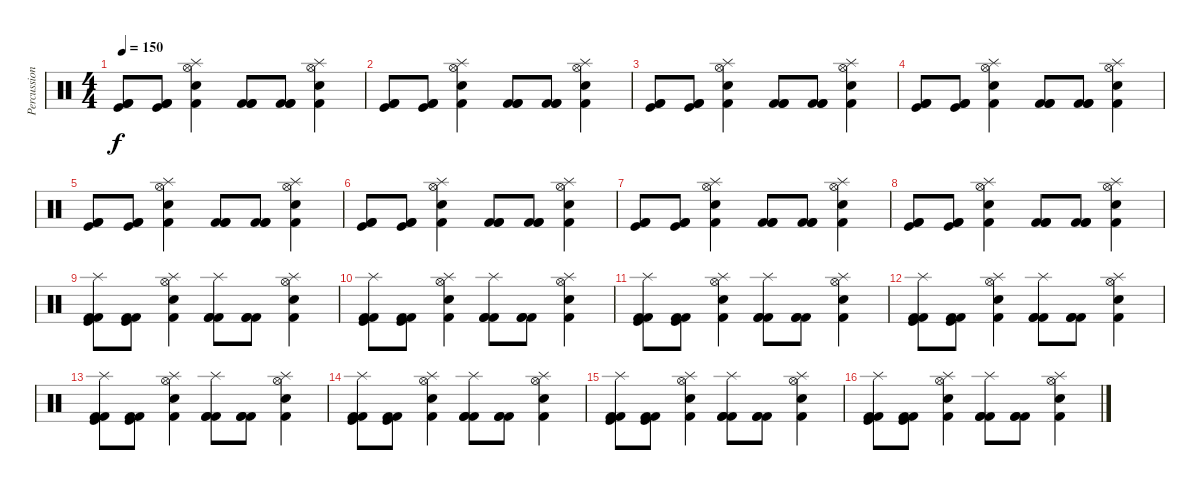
\track ("Percussion" "Percussion") {instrument percussion}
\staff {score}
\articulation defaults
\ts (4 4)
\tempo 150
\clef neutral
\ks c
("Kick (hit) 2" "Kick (hit)" "Kick (hit) 2").8{dy f} ("Kick (hit) 2" "Kick (hit)" "Kick (hit) 2").8 ("Hi-Hat (open)" "Snare (hit) 2" "Kick (hit) 2" "Splash (hit)").4 ("Kick (hit) 2" "Kick (hit) 2" "Kick (hit) 2").8 ("Kick (hit) 2" "Kick (hit) 2" "Kick (hit) 2").8 ("Hi-Hat (open)" "Snare (hit) 2" "Kick (hit) 2" "Splash (hit)").4 |
("Kick (hit) 2" "Kick (hit)" "Kick (hit) 2").8 ("Kick (hit) 2" "Kick (hit)" "Kick (hit) 2").8 ("Hi-Hat (open)" "Snare (hit) 2" "Kick (hit) 2" "Splash (hit)").4 ("Kick (hit) 2" "Kick (hit) 2" "Kick (hit) 2").8 ("Kick (hit) 2" "Kick (hit) 2" "Kick (hit) 2").8 ("Hi-Hat (open)" "Snare (hit) 2" "Kick (hit) 2" "Splash (hit)").4 |
("Kick (hit) 2" "Kick (hit)" "Kick (hit) 2").8 ("Kick (hit) 2" "Kick (hit)" "Kick (hit) 2").8 ("Hi-Hat (open)" "Snare (hit) 2" "Kick (hit) 2" "Splash (hit)").4 ("Kick (hit) 2" "Kick (hit) 2" "Kick (hit) 2").8 ("Kick (hit) 2" "Kick (hit) 2" "Kick (hit) 2").8 ("Hi-Hat (open)" "Snare (hit) 2" "Kick (hit) 2" "Splash (hit)").4 |
("Kick (hit) 2" "Kick (hit)" "Kick (hit) 2").8 ("Kick (hit) 2" "Kick (hit)" "Kick (hit) 2").8 ("Hi-Hat (open)" "Snare (hit) 2" "Kick (hit) 2" "Splash (hit)").4 ("Kick (hit) 2" "Kick (hit) 2" "Kick (hit) 2").8 ("Kick (hit) 2" "Kick (hit) 2" "Kick (hit) 2").8 ("Hi-Hat (open)" "Snare (hit) 2" "Kick (hit) 2" "Splash (hit)").4 |
("Kick (hit) 2" "Kick (hit)" "Kick (hit) 2").8 ("Kick (hit) 2" "Kick (hit)" "Kick (hit) 2").8 ("Hi-Hat (open)" "Snare (hit) 2" "Kick (hit) 2" "Splash (hit)").4 ("Kick (hit) 2" "Kick (hit) 2" "Kick (hit) 2").8 ("Kick (hit) 2" "Kick (hit) 2" "Kick (hit) 2").8 ("Hi-Hat (open)" "Snare (hit) 2" "Kick (hit) 2" "Splash (hit)").4 |
("Kick (hit) 2" "Kick (hit)" "Kick (hit) 2").8 ("Kick (hit) 2" "Kick (hit)" "Kick (hit) 2").8 ("Hi-Hat (open)" "Snare (hit) 2" "Kick (hit) 2" "Splash (hit)").4 ("Kick (hit) 2" "Kick (hit) 2" "Kick (hit) 2").8 ("Kick (hit) 2" "Kick (hit) 2" "Kick (hit) 2").8 ("Hi-Hat (open)" "Snare (hit) 2" "Kick (hit) 2" "Splash (hit)").4 |
("Kick (hit) 2" "Kick (hit)" "Kick (hit) 2").8 ("Kick (hit) 2" "Kick (hit)" "Kick (hit) 2").8 ("Hi-Hat (open)" "Snare (hit) 2" "Kick (hit) 2" "Splash (hit)").4 ("Kick (hit) 2" "Kick (hit) 2" "Kick (hit) 2").8 ("Kick (hit) 2" "Kick (hit) 2" "Kick (hit) 2").8 ("Hi-Hat (open)" "Snare (hit) 2" "Kick (hit) 2" "Splash (hit)").4 |
("Kick (hit) 2" "Kick (hit)" "Kick (hit) 2").8 ("Kick (hit) 2" "Kick (hit)" "Kick (hit) 2").8 ("Hi-Hat (open)" "Snare (hit) 2" "Kick (hit) 2" "Splash (hit)").4 ("Kick (hit) 2" "Kick (hit) 2" "Kick (hit) 2").8 ("Kick (hit) 2" "Kick (hit) 2" "Kick (hit) 2").8 ("Hi-Hat (open)" "Snare (hit) 2" "Kick (hit) 2" "Splash (hit)").4 |
("Kick (hit) 2" "Kick (hit)" "Kick (hit) 2" "Splash (hit)").8 ("Kick (hit) 2" "Kick (hit)" "Kick (hit) 2").8 ("Hi-Hat (open)" "Snare (hit) 2" "Kick (hit) 2" "Splash (hit)").4 ("Kick (hit) 2" "Kick (hit) 2" "Kick (hit) 2" "Splash (hit)").8 ("Kick (hit) 2" "Kick (hit) 2" "Kick (hit) 2").8 ("Hi-Hat (open)" "Snare (hit) 2" "Kick (hit) 2" "Splash (hit)").4 |
("Kick (hit) 2" "Kick (hit)" "Kick (hit) 2" "Splash (hit)").8 ("Kick (hit) 2" "Kick (hit)" "Kick (hit) 2").8 ("Hi-Hat (open)" "Snare (hit) 2" "Kick (hit) 2" "Splash (hit)").4 ("Kick (hit) 2" "Kick (hit) 2" "Kick (hit) 2" "Splash (hit)").8 ("Kick (hit) 2" "Kick (hit) 2" "Kick (hit) 2").8 ("Hi-Hat (open)" "Snare (hit) 2" "Kick (hit) 2" "Splash (hit)").4 |
("Kick (hit) 2" "Kick (hit)" "Kick (hit) 2" "Splash (hit)").8 ("Kick (hit) 2" "Kick (hit)" "Kick (hit) 2").8 ("Hi-Hat (open)" "Snare (hit) 2" "Kick (hit) 2" "Splash (hit)").4 ("Kick (hit) 2" "Kick (hit) 2" "Kick (hit) 2" "Splash (hit)").8 ("Kick (hit) 2" "Kick (hit) 2" "Kick (hit) 2").8 ("Hi-Hat (open)" "Snare (hit) 2" "Kick (hit) 2" "Splash (hit)").4 |
("Kick (hit) 2" "Kick (hit)" "Kick (hit) 2" "Splash (hit)").8 ("Kick (hit) 2" "Kick (hit)" "Kick (hit) 2").8 ("Hi-Hat (open)" "Snare (hit) 2" "Kick (hit) 2" "Splash (hit)").4 ("Kick (hit) 2" "Kick (hit) 2" "Kick (hit) 2" "Splash (hit)").8 ("Kick (hit) 2" "Kick (hit) 2" "Kick (hit) 2").8 ("Hi-Hat (open)" "Snare (hit) 2" "Kick (hit) 2" "Splash (hit)").4 |
("Kick (hit) 2" "Kick (hit)" "Kick (hit) 2" "Splash (hit)").8 ("Kick (hit) 2" "Kick (hit)" "Kick (hit) 2").8 ("Hi-Hat (open)" "Snare (hit) 2" "Kick (hit) 2" "Splash (hit)").4 ("Kick (hit) 2" "Kick (hit) 2" "Kick (hit) 2" "Splash (hit)").8 ("Kick (hit) 2" "Kick (hit) 2" "Kick (hit) 2").8 ("Hi-Hat (open)" "Snare (hit) 2" "Kick (hit) 2" "Splash (hit)").4 |
("Kick (hit) 2" "Kick (hit)" "Kick (hit) 2" "Splash (hit)").8 ("Kick (hit) 2" "Kick (hit)" "Kick (hit) 2").8 ("Hi-Hat (open)" "Snare (hit) 2" "Kick (hit) 2" "Splash (hit)").4 ("Kick (hit) 2" "Kick (hit) 2" "Kick (hit) 2" "Splash (hit)").8 ("Kick (hit) 2" "Kick (hit) 2" "Kick (hit) 2").8 ("Hi-Hat (open)" "Snare (hit) 2" "Kick (hit) 2" "Splash (hit)").4 |
("Kick (hit) 2" "Kick (hit)" "Kick (hit) 2" "Splash (hit)").8 ("Kick (hit) 2" "Kick (hit)" "Kick (hit) 2").8 ("Hi-Hat (open)" "Snare (hit) 2" "Kick (hit) 2" "Splash (hit)").4 ("Kick (hit) 2" "Kick (hit) 2" "Kick (hit) 2" "Splash (hit)").8 ("Kick (hit) 2" "Kick (hit) 2" "Kick (hit) 2").8 ("Hi-Hat (open)" "Snare (hit) 2" "Kick (hit) 2" "Splash (hit)").4 |
("Kick (hit) 2" "Kick (hit)" "Kick (hit) 2" "Splash (hit)").8 ("Kick (hit) 2" "Kick (hit)" "Kick (hit) 2").8 ("Hi-Hat (open)" "Snare (hit) 2" "Kick (hit) 2" "Splash (hit)").4 ("Kick (hit) 2" "Kick (hit) 2" "Kick (hit) 2" "Splash (hit)").8 ("Kick (hit) 2" "Kick (hit) 2" "Kick (hit) 2").8 ("Hi-Hat (open)" "Snare (hit) 2" "Kick (hit) 2" "Splash (hit)").4
